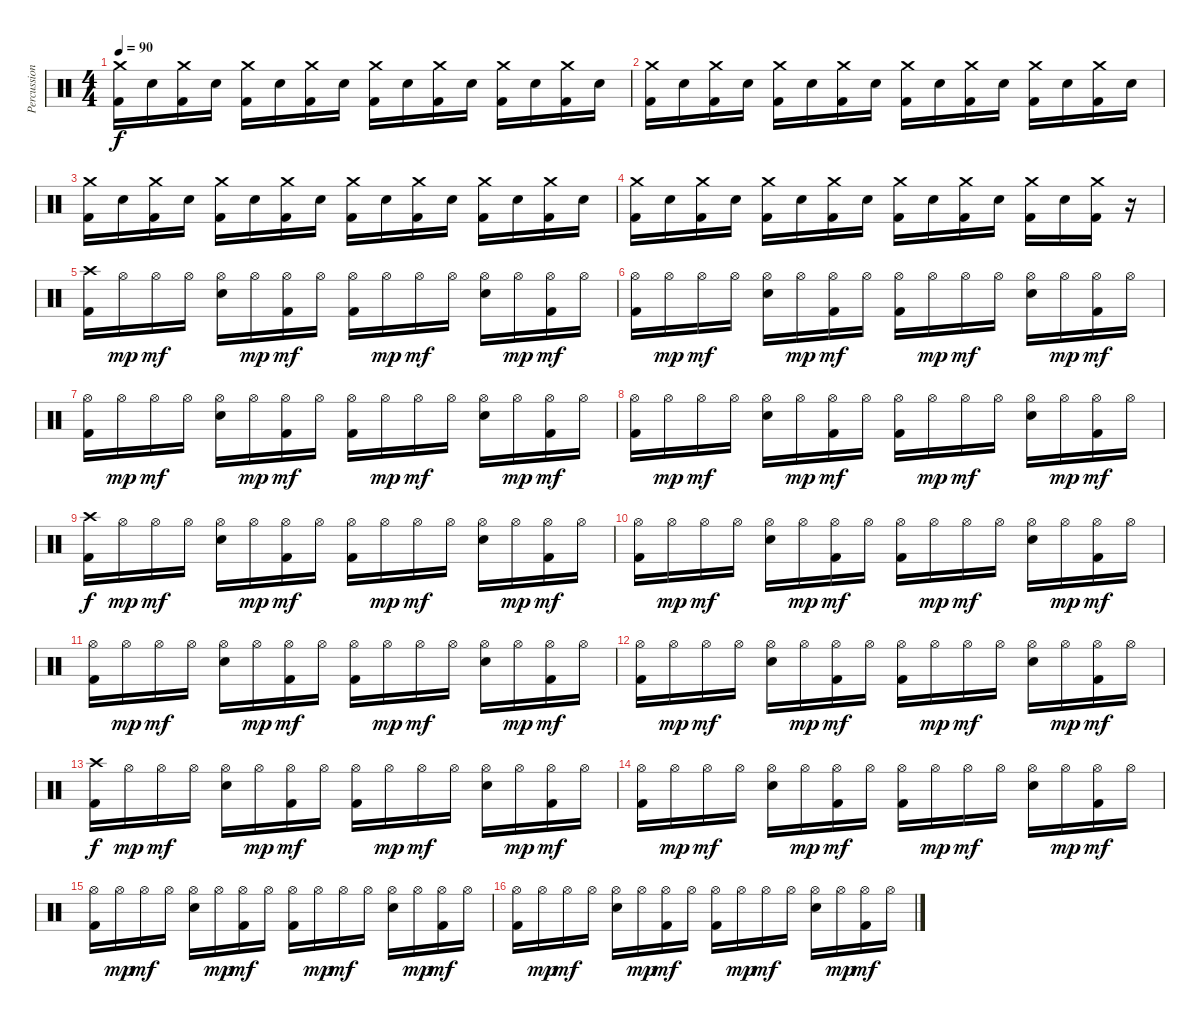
\track ("Percussioni" "Percussion") {instrument percussion}
\staff {score}
\articulation defaults
\ts (4 4)
\tempo 90
\clef neutral
\ks c
("Kick (hit) 2" "Crash medium (hit)").16{dy f} "Electric Snare (hit)".16 ("Kick (hit) 2" "Crash medium (hit)").16 "Electric Snare (hit)".16 ("Kick (hit) 2" "Crash medium (hit)").16 "Electric Snare (hit)".16 ("Kick (hit) 2" "Crash medium (hit)").16 "Electric Snare (hit)".16 ("Kick (hit) 2" "Crash medium (hit)").16 "Electric Snare (hit)".16 ("Kick (hit) 2" "Crash medium (hit)").16 "Electric Snare (hit)".16 ("Kick (hit) 2" "Crash medium (hit)").16 "Electric Snare (hit)".16 ("Kick (hit) 2" "Crash medium (hit)").16 "Electric Snare (hit)".16 |
("Kick (hit) 2" "Crash medium (hit)").16 "Electric Snare (hit)".16 ("Kick (hit) 2" "Crash medium (hit)").16 "Electric Snare (hit)".16 ("Kick (hit) 2" "Crash medium (hit)").16 "Electric Snare (hit)".16 ("Kick (hit) 2" "Crash medium (hit)").16 "Electric Snare (hit)".16 ("Kick (hit) 2" "Crash medium (hit)").16 "Electric Snare (hit)".16 ("Kick (hit) 2" "Crash medium (hit)").16 "Electric Snare (hit)".16 ("Kick (hit) 2" "Crash medium (hit)").16 "Electric Snare (hit)".16 ("Kick (hit) 2" "Crash medium (hit)").16 "Electric Snare (hit)".16 |
("Kick (hit) 2" "Crash medium (hit)").16 "Electric Snare (hit)".16 ("Kick (hit) 2" "Crash medium (hit)").16 "Electric Snare (hit)".16 ("Kick (hit) 2" "Crash medium (hit)").16 "Electric Snare (hit)".16 ("Kick (hit) 2" "Crash medium (hit)").16 "Electric Snare (hit)".16 ("Kick (hit) 2" "Crash medium (hit)").16 "Electric Snare (hit)".16 ("Kick (hit) 2" "Crash medium (hit)").16 "Electric Snare (hit)".16 ("Kick (hit) 2" "Crash medium (hit)").16 "Electric Snare (hit)".16 ("Kick (hit) 2" "Crash medium (hit)").16 "Electric Snare (hit)".16 |
("Kick (hit) 2" "Crash medium (hit)").16 "Electric Snare (hit)".16 ("Kick (hit) 2" "Crash medium (hit)").16 "Electric Snare (hit)".16 ("Kick (hit) 2" "Crash medium (hit)").16 "Electric Snare (hit)".16 ("Kick (hit) 2" "Crash medium (hit)").16 "Electric Snare (hit)".16 ("Kick (hit) 2" "Crash medium (hit)").16 "Electric Snare (hit)".16 ("Kick (hit) 2" "Crash medium (hit)").16 "Electric Snare (hit)".16 ("Kick (hit) 2" "Crash medium (hit)").16 "Electric Snare (hit)".16 ("Kick (hit) 2" "Crash medium (hit)").16 r.16 |
("Kick (hit) 2" "Crash high (hit)").16 "Hi-Hat (open)".16{dy mp} "Hi-Hat (open)".16{dy mf} "Hi-Hat (open)".16 ("Electric Snare (hit)" "Hi-Hat (open)").16 "Hi-Hat (open)".16{dy mp} ("Kick (hit) 2" "Hi-Hat (open)").16{dy mf} "Hi-Hat (open)".16 ("Kick (hit) 2" "Hi-Hat (open)").16 "Hi-Hat (open)".16{dy mp} "Hi-Hat (open)".16{dy mf} "Hi-Hat (open)".16 ("Electric Snare (hit)" "Hi-Hat (open)").16 "Hi-Hat (open)".16{dy mp} ("Kick (hit) 2" "Hi-Hat (open)").16{dy mf} "Hi-Hat (open)".16 |
("Kick (hit) 2" "Hi-Hat (open)").16 "Hi-Hat (open)".16{dy mp} "Hi-Hat (open)".16{dy mf} "Hi-Hat (open)".16 ("Electric Snare (hit)" "Hi-Hat (open)").16 "Hi-Hat (open)".16{dy mp} ("Kick (hit) 2" "Hi-Hat (open)").16{dy mf} "Hi-Hat (open)".16 ("Kick (hit) 2" "Hi-Hat (open)").16 "Hi-Hat (open)".16{dy mp} "Hi-Hat (open)".16{dy mf} "Hi-Hat (open)".16 ("Electric Snare (hit)" "Hi-Hat (open)").16 "Hi-Hat (open)".16{dy mp} ("Kick (hit) 2" "Hi-Hat (open)").16{dy mf} "Hi-Hat (open)".16 |
("Kick (hit) 2" "Hi-Hat (open)").16 "Hi-Hat (open)".16{dy mp} "Hi-Hat (open)".16{dy mf} "Hi-Hat (open)".16 ("Electric Snare (hit)" "Hi-Hat (open)").16 "Hi-Hat (open)".16{dy mp} ("Kick (hit) 2" "Hi-Hat (open)").16{dy mf} "Hi-Hat (open)".16 ("Kick (hit) 2" "Hi-Hat (open)").16 "Hi-Hat (open)".16{dy mp} "Hi-Hat (open)".16{dy mf} "Hi-Hat (open)".16 ("Electric Snare (hit)" "Hi-Hat (open)").16 "Hi-Hat (open)".16{dy mp} ("Kick (hit) 2" "Hi-Hat (open)").16{dy mf} "Hi-Hat (open)".16 |
("Kick (hit) 2" "Hi-Hat (open)").16 "Hi-Hat (open)".16{dy mp} "Hi-Hat (open)".16{dy mf} "Hi-Hat (open)".16 ("Electric Snare (hit)" "Hi-Hat (open)").16 "Hi-Hat (open)".16{dy mp} ("Kick (hit) 2" "Hi-Hat (open)").16{dy mf} "Hi-Hat (open)".16 ("Kick (hit) 2" "Hi-Hat (open)").16 "Hi-Hat (open)".16{dy mp} "Hi-Hat (open)".16{dy mf} "Hi-Hat (open)".16 ("Electric Snare (hit)" "Hi-Hat (open)").16 "Hi-Hat (open)".16{dy mp} ("Kick (hit) 2" "Hi-Hat (open)").16{dy mf} "Hi-Hat (open)".16 |
("Kick (hit) 2" "Crash high (hit)").16{dy f} "Hi-Hat (open)".16{dy mp} "Hi-Hat (open)".16{dy mf} "Hi-Hat (open)".16 ("Electric Snare (hit)" "Hi-Hat (open)").16 "Hi-Hat (open)".16{dy mp} ("Kick (hit) 2" "Hi-Hat (open)").16{dy mf} "Hi-Hat (open)".16 ("Kick (hit) 2" "Hi-Hat (open)").16 "Hi-Hat (open)".16{dy mp} "Hi-Hat (open)".16{dy mf} "Hi-Hat (open)".16 ("Electric Snare (hit)" "Hi-Hat (open)").16 "Hi-Hat (open)".16{dy mp} ("Kick (hit) 2" "Hi-Hat (open)").16{dy mf} "Hi-Hat (open)".16 |
("Kick (hit) 2" "Hi-Hat (open)").16 "Hi-Hat (open)".16{dy mp} "Hi-Hat (open)".16{dy mf} "Hi-Hat (open)".16 ("Electric Snare (hit)" "Hi-Hat (open)").16 "Hi-Hat (open)".16{dy mp} ("Kick (hit) 2" "Hi-Hat (open)").16{dy mf} "Hi-Hat (open)".16 ("Kick (hit) 2" "Hi-Hat (open)").16 "Hi-Hat (open)".16{dy mp} "Hi-Hat (open)".16{dy mf} "Hi-Hat (open)".16 ("Electric Snare (hit)" "Hi-Hat (open)").16 "Hi-Hat (open)".16{dy mp} ("Kick (hit) 2" "Hi-Hat (open)").16{dy mf} "Hi-Hat (open)".16 |
("Kick (hit) 2" "Hi-Hat (open)").16 "Hi-Hat (open)".16{dy mp} "Hi-Hat (open)".16{dy mf} "Hi-Hat (open)".16 ("Electric Snare (hit)" "Hi-Hat (open)").16 "Hi-Hat (open)".16{dy mp} ("Kick (hit) 2" "Hi-Hat (open)").16{dy mf} "Hi-Hat (open)".16 ("Kick (hit) 2" "Hi-Hat (open)").16 "Hi-Hat (open)".16{dy mp} "Hi-Hat (open)".16{dy mf} "Hi-Hat (open)".16 ("Electric Snare (hit)" "Hi-Hat (open)").16 "Hi-Hat (open)".16{dy mp} ("Kick (hit) 2" "Hi-Hat (open)").16{dy mf} "Hi-Hat (open)".16 |
("Kick (hit) 2" "Hi-Hat (open)").16 "Hi-Hat (open)".16{dy mp} "Hi-Hat (open)".16{dy mf} "Hi-Hat (open)".16 ("Electric Snare (hit)" "Hi-Hat (open)").16 "Hi-Hat (open)".16{dy mp} ("Kick (hit) 2" "Hi-Hat (open)").16{dy mf} "Hi-Hat (open)".16 ("Kick (hit) 2" "Hi-Hat (open)").16 "Hi-Hat (open)".16{dy mp} "Hi-Hat (open)".16{dy mf} "Hi-Hat (open)".16 ("Electric Snare (hit)" "Hi-Hat (open)").16 "Hi-Hat (open)".16{dy mp} ("Kick (hit) 2" "Hi-Hat (open)").16{dy mf} "Hi-Hat (open)".16 |
("Kick (hit) 2" "Crash high (hit)").16{dy f} "Hi-Hat (open)".16{dy mp} "Hi-Hat (open)".16{dy mf} "Hi-Hat (open)".16 ("Electric Snare (hit)" "Hi-Hat (open)").16 "Hi-Hat (open)".16{dy mp} ("Kick (hit) 2" "Hi-Hat (open)").16{dy mf} "Hi-Hat (open)".16 ("Kick (hit) 2" "Hi-Hat (open)").16 "Hi-Hat (open)".16{dy mp} "Hi-Hat (open)".16{dy mf} "Hi-Hat (open)".16 ("Electric Snare (hit)" "Hi-Hat (open)").16 "Hi-Hat (open)".16{dy mp} ("Kick (hit) 2" "Hi-Hat (open)").16{dy mf} "Hi-Hat (open)".16 |
("Kick (hit) 2" "Hi-Hat (open)").16 "Hi-Hat (open)".16{dy mp} "Hi-Hat (open)".16{dy mf} "Hi-Hat (open)".16 ("Electric Snare (hit)" "Hi-Hat (open)").16 "Hi-Hat (open)".16{dy mp} ("Kick (hit) 2" "Hi-Hat (open)").16{dy mf} "Hi-Hat (open)".16 ("Kick (hit) 2" "Hi-Hat (open)").16 "Hi-Hat (open)".16{dy mp} "Hi-Hat (open)".16{dy mf} "Hi-Hat (open)".16 ("Electric Snare (hit)" "Hi-Hat (open)").16 "Hi-Hat (open)".16{dy mp} ("Kick (hit) 2" "Hi-Hat (open)").16{dy mf} "Hi-Hat (open)".16 |
("Kick (hit) 2" "Hi-Hat (open)").16 "Hi-Hat (open)".16{dy mp} "Hi-Hat (open)".16{dy mf} "Hi-Hat (open)".16 ("Electric Snare (hit)" "Hi-Hat (open)").16 "Hi-Hat (open)".16{dy mp} ("Kick (hit) 2" "Hi-Hat (open)").16{dy mf} "Hi-Hat (open)".16 ("Kick (hit) 2" "Hi-Hat (open)").16 "Hi-Hat (open)".16{dy mp} "Hi-Hat (open)".16{dy mf} "Hi-Hat (open)".16 ("Electric Snare (hit)" "Hi-Hat (open)").16 "Hi-Hat (open)".16{dy mp} ("Kick (hit) 2" "Hi-Hat (open)").16{dy mf} "Hi-Hat (open)".16 |
("Kick (hit) 2" "Hi-Hat (open)").16 "Hi-Hat (open)".16{dy mp} "Hi-Hat (open)".16{dy mf} "Hi-Hat (open)".16 ("Electric Snare (hit)" "Hi-Hat (open)").16 "Hi-Hat (open)".16{dy mp} ("Kick (hit) 2" "Hi-Hat (open)").16{dy mf} "Hi-Hat (open)".16 ("Kick (hit) 2" "Hi-Hat (open)").16 "Hi-Hat (open)".16{dy mp} "Hi-Hat (open)".16{dy mf} "Hi-Hat (open)".16 ("Electric Snare (hit)" "Hi-Hat (open)").16 "Hi-Hat (open)".16{dy mp} ("Kick (hit) 2" "Hi-Hat (open)").16{dy mf} "Hi-Hat (open)".16
